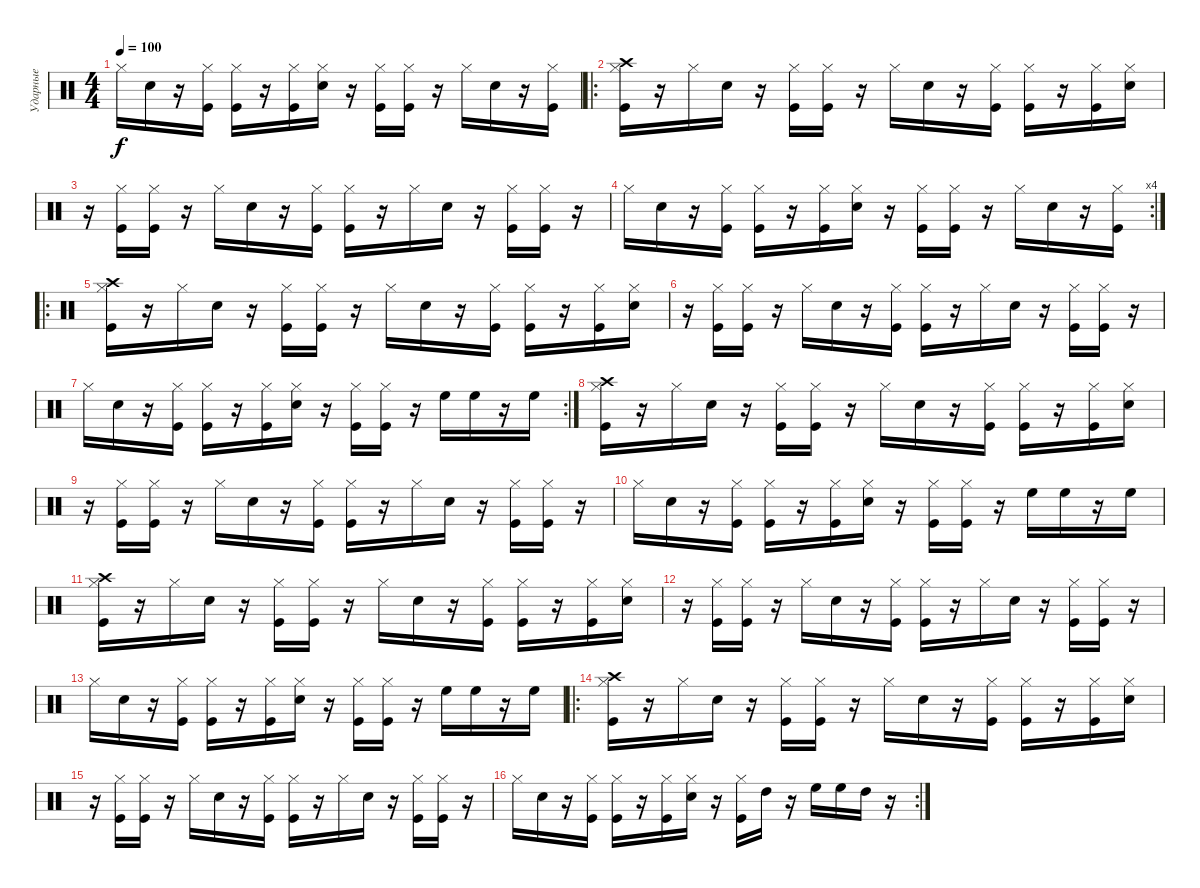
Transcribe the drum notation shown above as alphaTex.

\track ("Ударные" "Ударные") {instrument percussion}
\staff {score}
\articulation defaults
\ts (4 4)
\tempo 100
\clef neutral
\ks c "Hi-Hat (closed)".16{dy f} "Electric Snare (hit)".16
r.16 ("Kick (hit)" "Hi-Hat (closed)").16 ("Kick (hit)" "Hi-Hat (closed)").16 r.16 ("Kick (hit)" "Hi-Hat (closed)").16 ("Electric Snare (hit)" "Hi-Hat (closed)").16 r.16 ("Kick (hit)" "Hi-Hat (closed)").16 ("Kick (hit)" "Hi-Hat (closed)").16 r.16 "Hi-Hat (closed)".16 "Electric Snare (hit)".16 r.16 ("Kick (hit)" "Hi-Hat (closed)").16 |
\ro
("Hi-Hat (closed)" "Kick (hit)" "Crash high (hit)").16 r.16 "Hi-Hat (closed)".16 "Electric Snare (hit)".16 r.16 ("Kick (hit)" "Hi-Hat (closed)").16 ("Kick (hit)" "Hi-Hat (closed)").16 r.16 "Hi-Hat (closed)".16 "Electric Snare (hit)".16 r.16 ("Kick (hit)" "Hi-Hat (closed)").16 ("Kick (hit)" "Hi-Hat (closed)").16 r.16 ("Kick (hit)" "Hi-Hat (closed)").16 ("Electric Snare (hit)" "Hi-Hat (closed)").16 |
r.16 ("Kick (hit)" "Hi-Hat (closed)").16 ("Kick (hit)" "Hi-Hat (closed)").16 r.16 "Hi-Hat (closed)".16 "Electric Snare (hit)".16 r.16 ("Kick (hit)" "Hi-Hat (closed)").16 ("Kick (hit)" "Hi-Hat (closed)").16 r.16 "Hi-Hat (closed)".16 "Electric Snare (hit)".16 r.16 ("Kick (hit)" "Hi-Hat (closed)").16 ("Kick (hit)" "Hi-Hat (closed)").16 r.16 |
\rc 4 "Hi-Hat (closed)".16 "Electric Snare (hit)".16
r.16 ("Kick (hit)" "Hi-Hat (closed)").16 ("Kick (hit)" "Hi-Hat (closed)").16 r.16 ("Kick (hit)" "Hi-Hat (closed)").16 ("Electric Snare (hit)" "Hi-Hat (closed)").16 r.16 ("Kick (hit)" "Hi-Hat (closed)").16 ("Kick (hit)" "Hi-Hat (closed)").16 r.16 "Hi-Hat (closed)".16 "Electric Snare (hit)".16 r.16 ("Kick (hit)" "Hi-Hat (closed)").16 |
\ro
("Hi-Hat (closed)" "Kick (hit)" "Crash high (hit)").16 r.16 "Hi-Hat (closed)".16 "Electric Snare (hit)".16 r.16 ("Kick (hit)" "Hi-Hat (closed)").16 ("Kick (hit)" "Hi-Hat (closed)").16 r.16 "Hi-Hat (closed)".16 "Electric Snare (hit)".16 r.16 ("Kick (hit)" "Hi-Hat (closed)").16 ("Kick (hit)" "Hi-Hat (closed)").16 r.16 ("Kick (hit)" "Hi-Hat (closed)").16 ("Electric Snare (hit)" "Hi-Hat (closed)").16 |
r.16 ("Kick (hit)" "Hi-Hat (closed)").16 ("Kick (hit)" "Hi-Hat (closed)").16 r.16 "Hi-Hat (closed)".16 "Electric Snare (hit)".16 r.16 ("Kick (hit)" "Hi-Hat (closed)").16 ("Kick (hit)" "Hi-Hat (closed)").16 r.16 "Hi-Hat (closed)".16 "Electric Snare (hit)".16 r.16 ("Kick (hit)" "Hi-Hat (closed)").16 ("Kick (hit)" "Hi-Hat (closed)").16 r.16 |
\rc 2 "Hi-Hat (closed)".16 "Electric Snare (hit)".16
r.16 ("Kick (hit)" "Hi-Hat (closed)").16 ("Kick (hit)" "Hi-Hat (closed)").16 r.16 ("Kick (hit)" "Hi-Hat (closed)").16 ("Electric Snare (hit)" "Hi-Hat (closed)").16 r.16 ("Kick (hit)" "Hi-Hat (closed)").16 ("Kick (hit)" "Hi-Hat (closed)").16 r.16 "High Floor Tom (hit)".16 "High Floor Tom (hit)".16 r.16 "High Floor Tom (hit)".16 |
("Hi-Hat (closed)" "Kick (hit)" "Crash high (hit)").16 r.16 "Hi-Hat (closed)".16 "Electric Snare (hit)".16 r.16 ("Kick (hit)" "Hi-Hat (closed)").16 ("Kick (hit)" "Hi-Hat (closed)").16 r.16 "Hi-Hat (closed)".16 "Electric Snare (hit)".16 r.16 ("Kick (hit)" "Hi-Hat (closed)").16 ("Kick (hit)" "Hi-Hat (closed)").16 r.16 ("Kick (hit)" "Hi-Hat (closed)").16 ("Electric Snare (hit)" "Hi-Hat (closed)").16 |
r.16 ("Kick (hit)" "Hi-Hat (closed)").16 ("Kick (hit)" "Hi-Hat (closed)").16 r.16 "Hi-Hat (closed)".16 "Electric Snare (hit)".16 r.16 ("Kick (hit)" "Hi-Hat (closed)").16 ("Kick (hit)" "Hi-Hat (closed)").16 r.16 "Hi-Hat (closed)".16 "Electric Snare (hit)".16 r.16 ("Kick (hit)" "Hi-Hat (closed)").16 ("Kick (hit)" "Hi-Hat (closed)").16 r.16 |
"Hi-Hat (closed)".16 "Electric Snare (hit)".16 r.16 ("Kick (hit)" "Hi-Hat (closed)").16 ("Kick (hit)" "Hi-Hat (closed)").16 r.16 ("Kick (hit)" "Hi-Hat (closed)").16 ("Electric Snare (hit)" "Hi-Hat (closed)").16 r.16 ("Kick (hit)" "Hi-Hat (closed)").16 ("Kick (hit)" "Hi-Hat (closed)").16 r.16 "High Floor Tom (hit)".16 "High Floor Tom (hit)".16 r.16 "High Floor Tom (hit)".16 |
("Hi-Hat (closed)" "Kick (hit)" "Crash high (hit)").16 r.16 "Hi-Hat (closed)".16 "Electric Snare (hit)".16 r.16 ("Kick (hit)" "Hi-Hat (closed)").16 ("Kick (hit)" "Hi-Hat (closed)").16 r.16 "Hi-Hat (closed)".16 "Electric Snare (hit)".16 r.16 ("Kick (hit)" "Hi-Hat (closed)").16 ("Kick (hit)" "Hi-Hat (closed)").16 r.16 ("Kick (hit)" "Hi-Hat (closed)").16 ("Electric Snare (hit)" "Hi-Hat (closed)").16 |
r.16 ("Kick (hit)" "Hi-Hat (closed)").16 ("Kick (hit)" "Hi-Hat (closed)").16 r.16 "Hi-Hat (closed)".16 "Electric Snare (hit)".16 r.16 ("Kick (hit)" "Hi-Hat (closed)").16 ("Kick (hit)" "Hi-Hat (closed)").16 r.16 "Hi-Hat (closed)".16 "Electric Snare (hit)".16 r.16 ("Kick (hit)" "Hi-Hat (closed)").16 ("Kick (hit)" "Hi-Hat (closed)").16 r.16 |
"Hi-Hat (closed)".16 "Electric Snare (hit)".16 r.16 ("Kick (hit)" "Hi-Hat (closed)").16 ("Kick (hit)" "Hi-Hat (closed)").16 r.16 ("Kick (hit)" "Hi-Hat (closed)").16 ("Electric Snare (hit)" "Hi-Hat (closed)").16 r.16 ("Kick (hit)" "Hi-Hat (closed)").16 ("Kick (hit)" "Hi-Hat (closed)").16 r.16 "High Floor Tom (hit)".16 "High Floor Tom (hit)".16 r.16 "High Floor Tom (hit)".16 |
\ro
("Hi-Hat (closed)" "Kick (hit)" "Crash high (hit)").16 r.16 "Hi-Hat (closed)".16 "Electric Snare (hit)".16 r.16 ("Kick (hit)" "Hi-Hat (closed)").16 ("Kick (hit)" "Hi-Hat (closed)").16 r.16 "Hi-Hat (closed)".16 "Electric Snare (hit)".16 r.16 ("Kick (hit)" "Hi-Hat (closed)").16 ("Kick (hit)" "Hi-Hat (closed)").16 r.16 ("Kick (hit)" "Hi-Hat (closed)").16 ("Electric Snare (hit)" "Hi-Hat (closed)").16 |
r.16 ("Kick (hit)" "Hi-Hat (closed)").16 ("Kick (hit)" "Hi-Hat (closed)").16 r.16 "Hi-Hat (closed)".16 "Electric Snare (hit)".16 r.16 ("Kick (hit)" "Hi-Hat (closed)").16 ("Kick (hit)" "Hi-Hat (closed)").16 r.16 "Hi-Hat (closed)".16 "Electric Snare (hit)".16 r.16 ("Kick (hit)" "Hi-Hat (closed)").16 ("Kick (hit)" "Hi-Hat (closed)").16 r.16 |
\rc 2 "Hi-Hat (closed)".16 "Electric Snare (hit)".16
r.16 ("Kick (hit)" "Hi-Hat (closed)").16 ("Kick (hit)" "Hi-Hat (closed)").16 r.16 ("Kick (hit)" "Hi-Hat (closed)").16 ("Electric Snare (hit)" "Hi-Hat (closed)").16 r.16 ("Kick (hit)" "Hi-Hat (closed)").16 "High Tom (hit)".16 r.16 "High Floor Tom (hit)".16 "High Floor Tom (hit)".16 "High Tom (hit)".16 r.16
